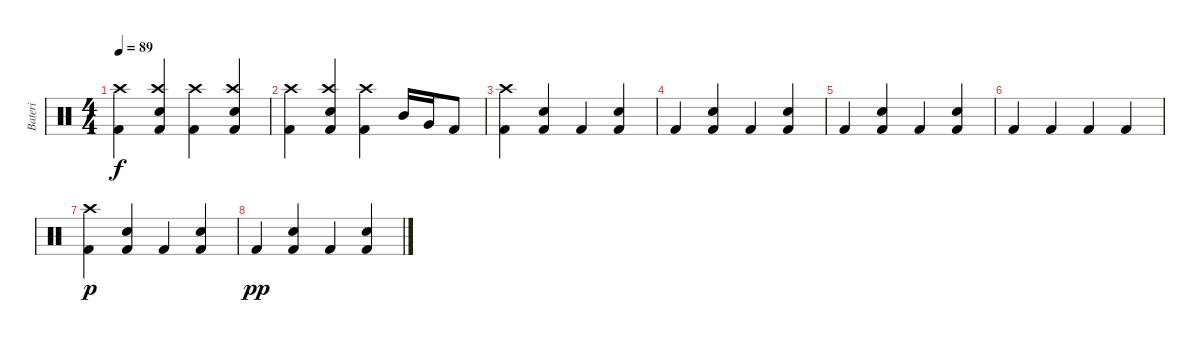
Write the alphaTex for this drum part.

\track ("Bateri" "Bateri") {instrument percussion}
\staff {score}
\articulation defaults
\ts (4 4)
\tempo 89
\clef neutral
\ks c
("Kick (hit) 2" "Crash high (hit)").4{dy f} ("Kick (hit) 2" "Snare (hit) 2" "Crash high (hit)").4 ("Kick (hit) 2" "Crash high (hit)").4 ("Kick (hit) 2" "Snare (hit) 2" "Crash high (hit)").4 |
("Kick (hit) 2" "Crash high (hit)").4 ("Kick (hit) 2" "Snare (hit) 2" "Crash high (hit)").4 ("Kick (hit) 2" "Crash high (hit)").4 "Mid Tom (hit)".16 "Very Low Tom (hit)".16 "Kick (hit) 2".8 |
("Kick (hit) 2" "Crash high (hit)").4 ("Kick (hit) 2" "Snare (hit) 2").4 "Kick (hit) 2".4 ("Kick (hit) 2" "Snare (hit) 2").4 |
"Kick (hit) 2".4 ("Kick (hit) 2" "Snare (hit) 2").4 "Kick (hit) 2".4 ("Kick (hit) 2" "Snare (hit) 2").4 |
"Kick (hit) 2".4 ("Kick (hit) 2" "Snare (hit) 2").4 "Kick (hit) 2".4 ("Kick (hit) 2" "Snare (hit) 2").4 |
"Kick (hit) 2".4 "Kick (hit) 2".4 "Kick (hit) 2".4 "Kick (hit) 2".4 |
("Kick (hit) 2" "Crash high (hit)").4{dy p} ("Kick (hit) 2" "Snare (hit) 2").4 "Kick (hit) 2".4 ("Kick (hit) 2" "Snare (hit) 2").4 |
"Kick (hit) 2".4{dy pp} ("Kick (hit) 2" "Snare (hit) 2").4 "Kick (hit) 2".4 ("Kick (hit) 2" "Snare (hit) 2").4
